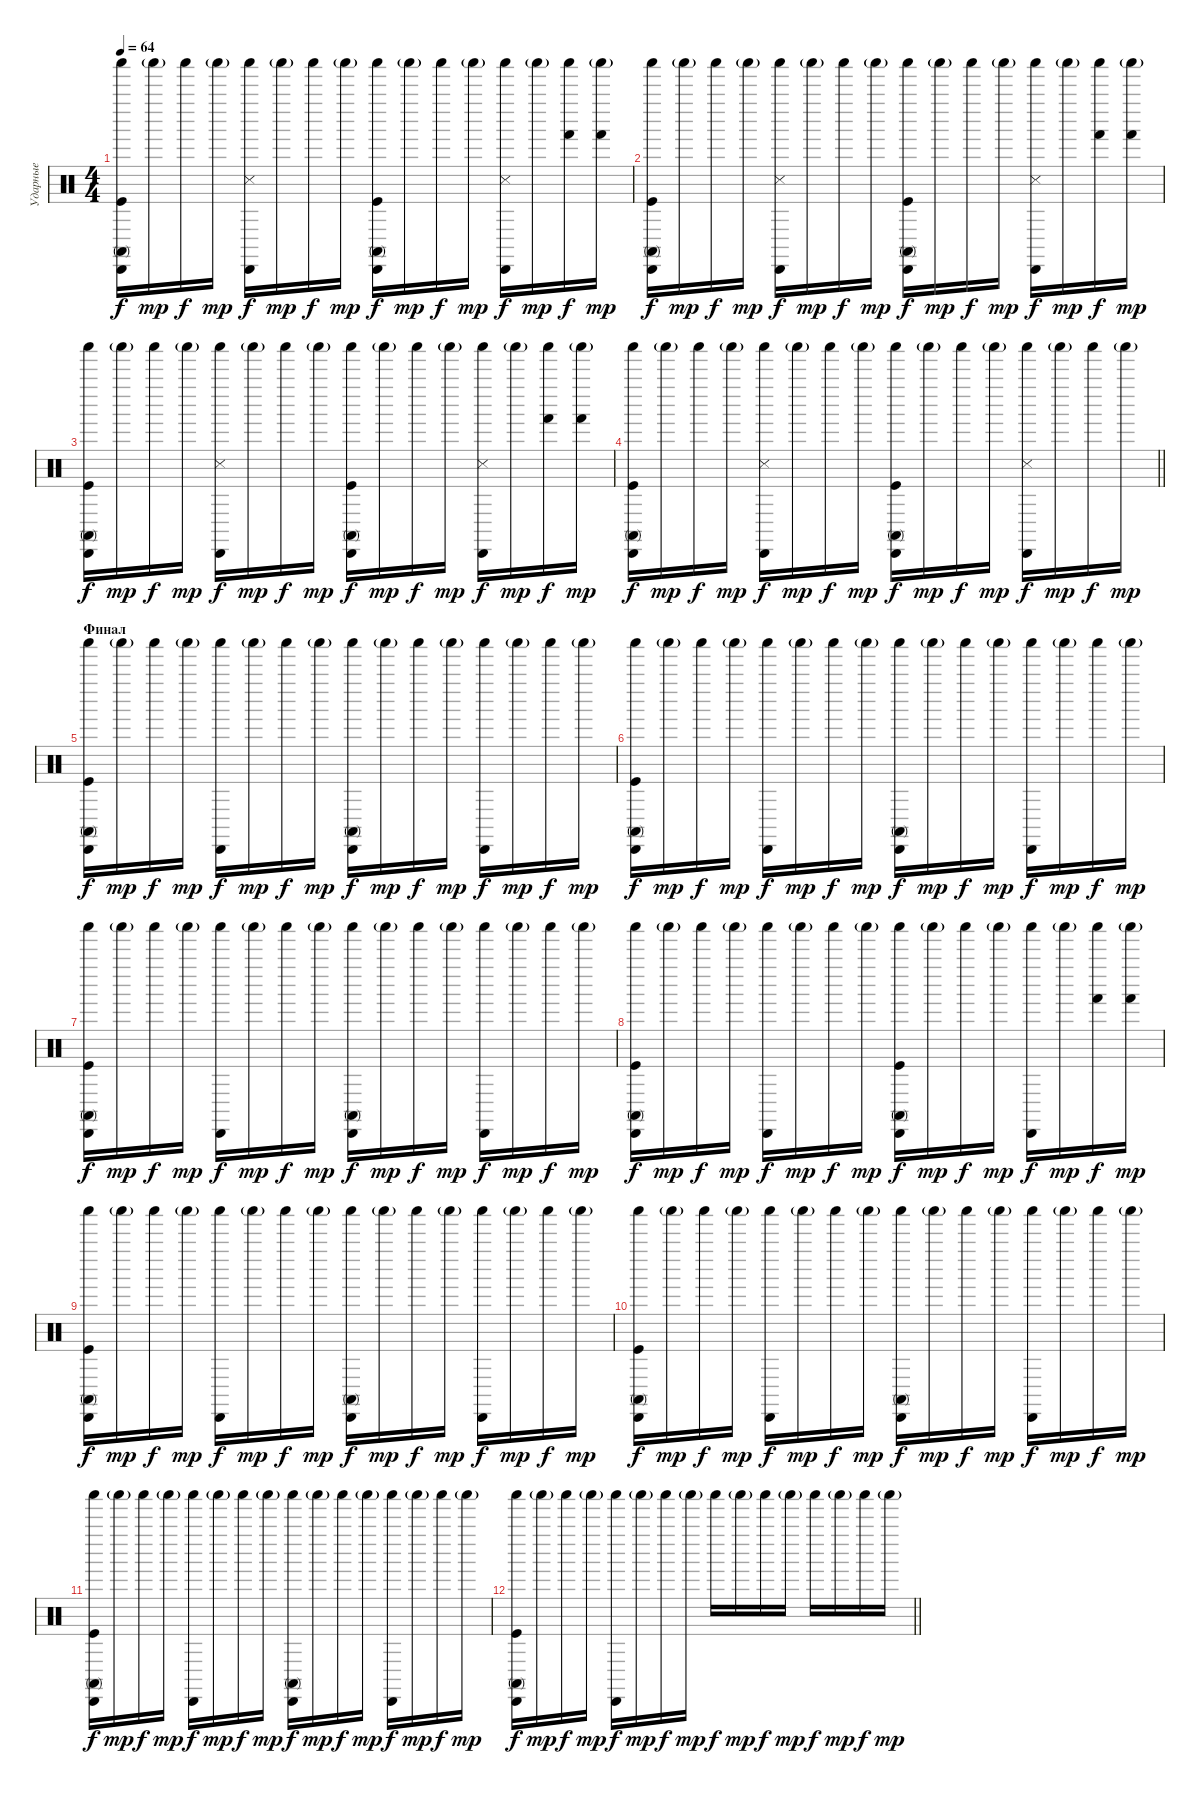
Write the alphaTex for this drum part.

\track ("Ударные" "Ударные") {instrument percussion}
\staff {score}
\articulation defaults
\ts (4 4)
\tempo 64
\clef neutral
\ks c
("Kick (hit)" "Conga high (mute)" "Cabasa (hit)" "Shaker (hit)").16{dy f} "Shaker (hit)"{g}.16{dy mp} "Shaker (hit)".16{dy f} "Shaker (hit)"{g}.16{dy mp} ("Snare (side stick) 3" "Cabasa (hit)" "Shaker (hit)").16{dy f} "Shaker (hit)"{g}.16{dy mp} "Shaker (hit)".16{dy f} "Shaker (hit)"{g}.16{dy mp} ("Kick (hit)" "Conga high (mute)" "Cabasa (hit)" "Shaker (hit)").16{dy f} "Shaker (hit)"{g}.16{dy mp} "Shaker (hit)".16{dy f} "Shaker (hit)"{g}.16{dy mp} ("Snare (side stick) 3" "Cabasa (hit)" "Shaker (hit)").16{dy f} "Shaker (hit)"{g}.16{dy mp} ("Hand (hit)" "Shaker (hit)").16{dy f} ("Hand (hit)" "Shaker (hit)"{g}).16{dy mp} |
("Kick (hit)" "Conga high (mute)" "Cabasa (hit)" "Shaker (hit)").16{dy f} "Shaker (hit)"{g}.16{dy mp} "Shaker (hit)".16{dy f} "Shaker (hit)"{g}.16{dy mp} ("Snare (side stick) 3" "Cabasa (hit)" "Shaker (hit)").16{dy f} "Shaker (hit)"{g}.16{dy mp} "Shaker (hit)".16{dy f} "Shaker (hit)"{g}.16{dy mp} ("Kick (hit)" "Conga high (mute)" "Cabasa (hit)" "Shaker (hit)").16{dy f} "Shaker (hit)"{g}.16{dy mp} "Shaker (hit)".16{dy f} "Shaker (hit)"{g}.16{dy mp} ("Snare (side stick) 3" "Cabasa (hit)" "Shaker (hit)").16{dy f} "Shaker (hit)"{g}.16{dy mp} ("Hand (hit)" "Shaker (hit)").16{dy f} ("Hand (hit)" "Shaker (hit)"{g}).16{dy mp} |
("Kick (hit)" "Conga high (mute)" "Cabasa (hit)" "Shaker (hit)").16{dy f} "Shaker (hit)"{g}.16{dy mp} "Shaker (hit)".16{dy f} "Shaker (hit)"{g}.16{dy mp} ("Snare (side stick) 3" "Cabasa (hit)" "Shaker (hit)").16{dy f} "Shaker (hit)"{g}.16{dy mp} "Shaker (hit)".16{dy f} "Shaker (hit)"{g}.16{dy mp} ("Kick (hit)" "Conga high (mute)" "Cabasa (hit)" "Shaker (hit)").16{dy f} "Shaker (hit)"{g}.16{dy mp} "Shaker (hit)".16{dy f} "Shaker (hit)"{g}.16{dy mp} ("Snare (side stick) 3" "Cabasa (hit)" "Shaker (hit)").16{dy f} "Shaker (hit)"{g}.16{dy mp} ("Hand (hit)" "Shaker (hit)").16{dy f} ("Hand (hit)" "Shaker (hit)"{g}).16{dy mp} |
\barLineRight lightlight
("Kick (hit)" "Conga high (mute)" "Cabasa (hit)" "Shaker (hit)").16{dy f} "Shaker (hit)"{g}.16{dy mp} "Shaker (hit)".16{dy f} "Shaker (hit)"{g}.16{dy mp} ("Snare (side stick) 3" "Cabasa (hit)" "Shaker (hit)").16{dy f} "Shaker (hit)"{g}.16{dy mp} "Shaker (hit)".16{dy f} "Shaker (hit)"{g}.16{dy mp} ("Kick (hit)" "Conga high (mute)" "Cabasa (hit)" "Shaker (hit)").16{dy f} "Shaker (hit)"{g}.16{dy mp} "Shaker (hit)".16{dy f} "Shaker (hit)"{g}.16{dy mp} ("Snare (side stick) 3" "Cabasa (hit)" "Shaker (hit)").16{dy f} "Shaker (hit)"{g}.16{dy mp} "Shaker (hit)".16{dy f} "Shaker (hit)"{g}.16{dy mp} |
\section ("" "Финал")
("Kick (hit)" "Conga high (mute)" "Cabasa (hit)" "Shaker (hit)").16{dy f} "Shaker (hit)"{g}.16{dy mp} "Shaker (hit)".16{dy f} "Shaker (hit)"{g}.16{dy mp} ("Cabasa (hit)" "Shaker (hit)").16{dy f} "Shaker (hit)"{g}.16{dy mp} "Shaker (hit)".16{dy f} "Shaker (hit)"{g}.16{dy mp} ("Conga high (mute)" "Cabasa (hit)" "Shaker (hit)").16{dy f} "Shaker (hit)"{g}.16{dy mp} "Shaker (hit)".16{dy f} "Shaker (hit)"{g}.16{dy mp} ("Cabasa (hit)" "Shaker (hit)").16{dy f} "Shaker (hit)"{g}.16{dy mp} "Shaker (hit)".16{dy f} "Shaker (hit)"{g}.16{dy mp} |
("Kick (hit)" "Conga high (mute)" "Cabasa (hit)" "Shaker (hit)").16{dy f} "Shaker (hit)"{g}.16{dy mp} "Shaker (hit)".16{dy f} "Shaker (hit)"{g}.16{dy mp} ("Cabasa (hit)" "Shaker (hit)").16{dy f} "Shaker (hit)"{g}.16{dy mp} "Shaker (hit)".16{dy f} "Shaker (hit)"{g}.16{dy mp} ("Conga high (mute)" "Cabasa (hit)" "Shaker (hit)").16{dy f} "Shaker (hit)"{g}.16{dy mp} "Shaker (hit)".16{dy f} "Shaker (hit)"{g}.16{dy mp} ("Cabasa (hit)" "Shaker (hit)").16{dy f} "Shaker (hit)"{g}.16{dy mp} "Shaker (hit)".16{dy f} "Shaker (hit)"{g}.16{dy mp} |
("Kick (hit)" "Conga high (mute)" "Cabasa (hit)" "Shaker (hit)").16{dy f} "Shaker (hit)"{g}.16{dy mp} "Shaker (hit)".16{dy f} "Shaker (hit)"{g}.16{dy mp} ("Cabasa (hit)" "Shaker (hit)").16{dy f} "Shaker (hit)"{g}.16{dy mp} "Shaker (hit)".16{dy f} "Shaker (hit)"{g}.16{dy mp} ("Conga high (mute)" "Cabasa (hit)" "Shaker (hit)").16{dy f} "Shaker (hit)"{g}.16{dy mp} "Shaker (hit)".16{dy f} "Shaker (hit)"{g}.16{dy mp} ("Cabasa (hit)" "Shaker (hit)").16{dy f} "Shaker (hit)"{g}.16{dy mp} "Shaker (hit)".16{dy f} "Shaker (hit)"{g}.16{dy mp} |
("Kick (hit)" "Conga high (mute)" "Cabasa (hit)" "Shaker (hit)").16{dy f} "Shaker (hit)"{g}.16{dy mp} "Shaker (hit)".16{dy f} "Shaker (hit)"{g}.16{dy mp} ("Cabasa (hit)" "Shaker (hit)").16{dy f} "Shaker (hit)"{g}.16{dy mp} "Shaker (hit)".16{dy f} "Shaker (hit)"{g}.16{dy mp} ("Kick (hit)" "Conga high (mute)" "Cabasa (hit)" "Shaker (hit)").16{dy f} "Shaker (hit)"{g}.16{dy mp} "Shaker (hit)".16{dy f} "Shaker (hit)"{g}.16{dy mp} ("Cabasa (hit)" "Shaker (hit)").16{dy f} "Shaker (hit)"{g}.16{dy mp} ("Hand (hit)" "Shaker (hit)").16{dy f} ("Hand (hit)" "Shaker (hit)"{g}).16{dy mp} |
("Kick (hit)" "Conga high (mute)" "Cabasa (hit)" "Shaker (hit)").16{dy f} "Shaker (hit)"{g}.16{dy mp} "Shaker (hit)".16{dy f} "Shaker (hit)"{g}.16{dy mp} ("Cabasa (hit)" "Shaker (hit)").16{dy f} "Shaker (hit)"{g}.16{dy mp} "Shaker (hit)".16{dy f} "Shaker (hit)"{g}.16{dy mp} ("Conga high (mute)" "Cabasa (hit)" "Shaker (hit)").16{dy f} "Shaker (hit)"{g}.16{dy mp} "Shaker (hit)".16{dy f} "Shaker (hit)"{g}.16{dy mp} ("Cabasa (hit)" "Shaker (hit)").16{dy f} "Shaker (hit)"{g}.16{dy mp} "Shaker (hit)".16{dy f} "Shaker (hit)"{g}.16{dy mp} |
("Kick (hit)" "Conga high (mute)" "Cabasa (hit)" "Shaker (hit)").16{dy f} "Shaker (hit)"{g}.16{dy mp} "Shaker (hit)".16{dy f} "Shaker (hit)"{g}.16{dy mp} ("Cabasa (hit)" "Shaker (hit)").16{dy f} "Shaker (hit)"{g}.16{dy mp} "Shaker (hit)".16{dy f} "Shaker (hit)"{g}.16{dy mp} ("Conga high (mute)" "Cabasa (hit)" "Shaker (hit)").16{dy f} "Shaker (hit)"{g}.16{dy mp} "Shaker (hit)".16{dy f} "Shaker (hit)"{g}.16{dy mp} ("Cabasa (hit)" "Shaker (hit)").16{dy f} "Shaker (hit)"{g}.16{dy mp} "Shaker (hit)".16{dy f} "Shaker (hit)"{g}.16{dy mp} |
("Kick (hit)" "Conga high (mute)" "Cabasa (hit)" "Shaker (hit)").16{dy f} "Shaker (hit)"{g}.16{dy mp} "Shaker (hit)".16{dy f} "Shaker (hit)"{g}.16{dy mp} ("Cabasa (hit)" "Shaker (hit)").16{dy f} "Shaker (hit)"{g}.16{dy mp} "Shaker (hit)".16{dy f} "Shaker (hit)"{g}.16{dy mp} ("Conga high (mute)" "Cabasa (hit)" "Shaker (hit)").16{dy f} "Shaker (hit)"{g}.16{dy mp} "Shaker (hit)".16{dy f} "Shaker (hit)"{g}.16{dy mp} ("Cabasa (hit)" "Shaker (hit)").16{dy f} "Shaker (hit)"{g}.16{dy mp} "Shaker (hit)".16{dy f} "Shaker (hit)"{g}.16{dy mp} |
\barLineRight lightlight
("Kick (hit)" "Conga high (mute)" "Cabasa (hit)" "Shaker (hit)").16{dy f} "Shaker (hit)"{g}.16{dy mp} "Shaker (hit)".16{dy f} "Shaker (hit)"{g}.16{dy mp} ("Cabasa (hit)" "Shaker (hit)").16{dy f} "Shaker (hit)"{g}.16{dy mp} "Shaker (hit)".16{dy f} "Shaker (hit)"{g}.16{dy mp} "Shaker (hit)".16{dy f} "Shaker (hit)"{g}.16{dy mp} "Shaker (hit)".16{dy f} "Shaker (hit)"{g}.16{dy mp} "Shaker (hit)".16{dy f} "Shaker (hit)"{g}.16{dy mp} "Shaker (hit)".16{dy f} "Shaker (hit)"{g}.16{dy mp}
